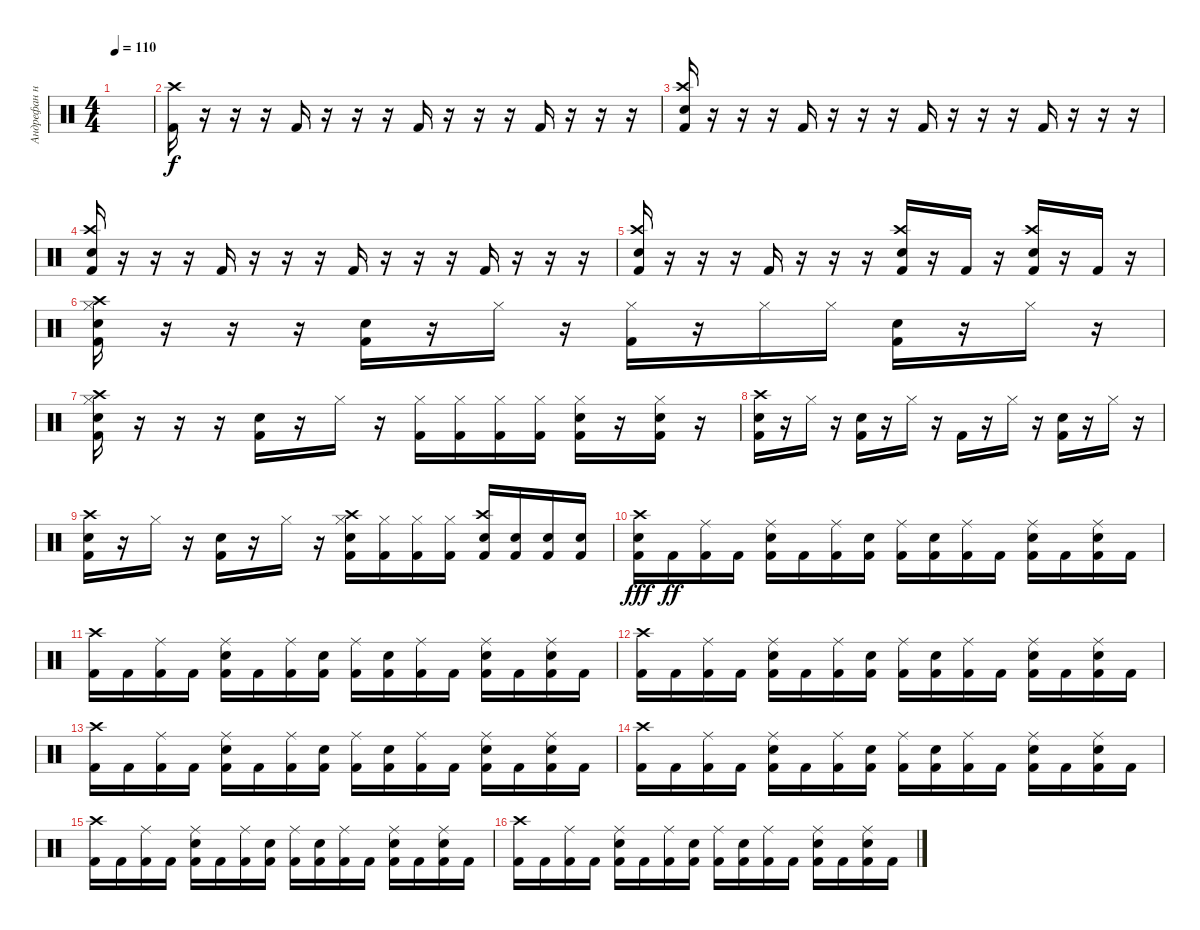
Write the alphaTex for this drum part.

\track ("Андрефан на драмах" "Андрефан н") {instrument percussion}
\staff {score}
\articulation defaults
\ts (4 4)
\tempo 110
\clef neutral
\ks c
|
("Kick (hit) 2" "Crash high (hit)").16{dy f} r.16 r.16 r.16 "Kick (hit) 2".16 r.16 r.16 r.16 "Kick (hit) 2".16 r.16 r.16 r.16 "Kick (hit) 2".16 r.16 r.16 r.16 |
("Kick (hit) 2" "Crash high (hit)" "Electric Snare (hit)").16 r.16 r.16 r.16 "Kick (hit) 2".16 r.16 r.16 r.16 "Kick (hit) 2".16 r.16 r.16 r.16 "Kick (hit) 2".16 r.16 r.16 r.16 |
("Kick (hit) 2" "Electric Snare (hit)" "Crash high (hit)").16 r.16 r.16 r.16 "Kick (hit) 2".16 r.16 r.16 r.16 "Kick (hit) 2".16 r.16 r.16 r.16 "Kick (hit) 2".16 r.16 r.16 r.16 |
("Kick (hit) 2" "Crash high (hit)" "Electric Snare (hit)").16 r.16 r.16 r.16 "Kick (hit) 2".16 r.16 r.16 r.16 ("Kick (hit) 2" "Crash high (hit)" "Electric Snare (hit)").16 r.16 "Kick (hit) 2".16 r.16 ("Kick (hit) 2" "Crash high (hit)" "Electric Snare (hit)").16 r.16 "Kick (hit) 2".16 r.16 |
("Kick (hit) 2" "Hi-Hat (closed)" "Crash high (hit)" "Electric Snare (hit)").16 r.16 r.16 r.16 ("Kick (hit) 2" "Electric Snare (hit)").16 r.16 "Hi-Hat (closed)".16 r.16 ("Kick (hit) 2" "Hi-Hat (closed)").16 r.16 "Hi-Hat (closed)".16 "Hi-Hat (closed)".16 ("Kick (hit) 2" "Electric Snare (hit)").16 r.16 "Hi-Hat (closed)".16 r.16 |
("Kick (hit) 2" "Hi-Hat (closed)" "Electric Snare (hit)" "Crash high (hit)").16 r.16 r.16 r.16 ("Kick (hit) 2" "Electric Snare (hit)").16 r.16 "Hi-Hat (closed)".16 r.16 ("Kick (hit) 2" "Hi-Hat (closed)").16 ("Kick (hit) 2" "Hi-Hat (closed)").16 ("Kick (hit) 2" "Hi-Hat (closed)").16 ("Kick (hit) 2" "Hi-Hat (closed)").16 ("Kick (hit) 2" "Electric Snare (hit)" "Hi-Hat (closed)").16 r.16 ("Kick (hit) 2" "Electric Snare (hit)" "Hi-Hat (closed)").16 r.16 |
("Kick (hit) 2" "Electric Snare (hit)" "Crash high (hit)").16 r.16 "Hi-Hat (closed)".16 r.16 ("Kick (hit) 2" "Electric Snare (hit)").16 r.16 "Hi-Hat (closed)".16 r.16 "Kick (hit) 2".16 r.16 "Hi-Hat (closed)".16 r.16 ("Kick (hit) 2" "Electric Snare (hit)").16 r.16 "Hi-Hat (closed)".16 r.16 |
("Kick (hit) 2" "Crash high (hit)" "Electric Snare (hit)").16 r.16 "Hi-Hat (closed)".16 r.16 ("Kick (hit) 2" "Electric Snare (hit)").16 r.16 "Hi-Hat (closed)".16 r.16 ("Kick (hit) 2" "Hi-Hat (closed)" "Crash high (hit)" "Electric Snare (hit)").16 ("Kick (hit) 2" "Hi-Hat (closed)").16 ("Kick (hit) 2" "Hi-Hat (closed)").16 ("Kick (hit) 2" "Hi-Hat (closed)").16 ("Kick (hit) 2" "Electric Snare (hit)" "Crash high (hit)").16 ("Kick (hit) 2" "Electric Snare (hit)").16 ("Kick (hit) 2" "Electric Snare (hit)").16 ("Kick (hit) 2" "Electric Snare (hit)").16 |
("Kick (hit) 2" "Crash high (hit)" "Electric Snare (hit)").16{dy fff} "Kick (hit) 2".16{dy ff} ("Kick (hit) 2" "Ride (middle)").16 "Kick (hit) 2".16 ("Kick (hit) 2" "Ride (middle)" "Electric Snare (hit)").16 "Kick (hit) 2".16 ("Kick (hit) 2" "Ride (middle)").16 ("Kick (hit) 2" "Electric Snare (hit)").16 ("Kick (hit) 2" "Ride (middle)").16 ("Kick (hit) 2" "Electric Snare (hit)").16 ("Kick (hit) 2" "Ride (middle)").16 "Kick (hit) 2".16 ("Kick (hit) 2" "Ride (middle)" "Electric Snare (hit)").16 "Kick (hit) 2".16 ("Kick (hit) 2" "Ride (middle)" "Electric Snare (hit)").16 "Kick (hit) 2".16 |
("Kick (hit) 2" "Crash high (hit)").16 "Kick (hit) 2".16 ("Kick (hit) 2" "Ride (middle)").16 "Kick (hit) 2".16 ("Kick (hit) 2" "Ride (middle)" "Electric Snare (hit)").16 "Kick (hit) 2".16 ("Kick (hit) 2" "Ride (middle)").16 ("Kick (hit) 2" "Electric Snare (hit)").16 ("Kick (hit) 2" "Ride (middle)").16 ("Kick (hit) 2" "Electric Snare (hit)").16 ("Kick (hit) 2" "Ride (middle)").16 "Kick (hit) 2".16 ("Kick (hit) 2" "Ride (middle)" "Electric Snare (hit)").16 "Kick (hit) 2".16 ("Kick (hit) 2" "Ride (middle)" "Electric Snare (hit)").16 "Kick (hit) 2".16 |
("Kick (hit) 2" "Crash high (hit)").16 "Kick (hit) 2".16 ("Kick (hit) 2" "Ride (middle)").16 "Kick (hit) 2".16 ("Kick (hit) 2" "Ride (middle)" "Electric Snare (hit)").16 "Kick (hit) 2".16 ("Kick (hit) 2" "Ride (middle)").16 ("Kick (hit) 2" "Electric Snare (hit)").16 ("Kick (hit) 2" "Ride (middle)").16 ("Kick (hit) 2" "Electric Snare (hit)").16 ("Kick (hit) 2" "Ride (middle)").16 "Kick (hit) 2".16 ("Kick (hit) 2" "Ride (middle)" "Electric Snare (hit)").16 "Kick (hit) 2".16 ("Kick (hit) 2" "Ride (middle)" "Electric Snare (hit)").16 "Kick (hit) 2".16 |
("Kick (hit) 2" "Crash high (hit)").16 "Kick (hit) 2".16 ("Kick (hit) 2" "Ride (middle)").16 "Kick (hit) 2".16 ("Kick (hit) 2" "Ride (middle)" "Electric Snare (hit)").16 "Kick (hit) 2".16 ("Kick (hit) 2" "Ride (middle)").16 ("Kick (hit) 2" "Electric Snare (hit)").16 ("Kick (hit) 2" "Ride (middle)").16 ("Kick (hit) 2" "Electric Snare (hit)").16 ("Kick (hit) 2" "Ride (middle)").16 "Kick (hit) 2".16 ("Kick (hit) 2" "Ride (middle)" "Electric Snare (hit)").16 "Kick (hit) 2".16 ("Kick (hit) 2" "Ride (middle)" "Electric Snare (hit)").16 "Kick (hit) 2".16 |
("Kick (hit) 2" "Crash high (hit)").16 "Kick (hit) 2".16 ("Kick (hit) 2" "Ride (middle)").16 "Kick (hit) 2".16 ("Kick (hit) 2" "Ride (middle)" "Electric Snare (hit)").16 "Kick (hit) 2".16 ("Kick (hit) 2" "Ride (middle)").16 ("Kick (hit) 2" "Electric Snare (hit)").16 ("Kick (hit) 2" "Ride (middle)").16 ("Kick (hit) 2" "Electric Snare (hit)").16 ("Kick (hit) 2" "Ride (middle)").16 "Kick (hit) 2".16 ("Kick (hit) 2" "Ride (middle)" "Electric Snare (hit)").16 "Kick (hit) 2".16 ("Kick (hit) 2" "Ride (middle)" "Electric Snare (hit)").16 "Kick (hit) 2".16 |
("Kick (hit) 2" "Crash high (hit)").16 "Kick (hit) 2".16 ("Kick (hit) 2" "Ride (middle)").16 "Kick (hit) 2".16 ("Kick (hit) 2" "Ride (middle)" "Electric Snare (hit)").16 "Kick (hit) 2".16 ("Kick (hit) 2" "Ride (middle)").16 ("Kick (hit) 2" "Electric Snare (hit)").16 ("Kick (hit) 2" "Ride (middle)").16 ("Kick (hit) 2" "Electric Snare (hit)").16 ("Kick (hit) 2" "Ride (middle)").16 "Kick (hit) 2".16 ("Kick (hit) 2" "Ride (middle)" "Electric Snare (hit)").16 "Kick (hit) 2".16 ("Kick (hit) 2" "Ride (middle)" "Electric Snare (hit)").16 "Kick (hit) 2".16 |
("Kick (hit) 2" "Crash high (hit)").16 "Kick (hit) 2".16 ("Kick (hit) 2" "Ride (middle)").16 "Kick (hit) 2".16 ("Kick (hit) 2" "Ride (middle)" "Electric Snare (hit)").16 "Kick (hit) 2".16 ("Kick (hit) 2" "Ride (middle)").16 ("Kick (hit) 2" "Electric Snare (hit)").16 ("Kick (hit) 2" "Ride (middle)").16 ("Kick (hit) 2" "Electric Snare (hit)").16 ("Kick (hit) 2" "Ride (middle)").16 "Kick (hit) 2".16 ("Kick (hit) 2" "Ride (middle)" "Electric Snare (hit)").16 "Kick (hit) 2".16 ("Kick (hit) 2" "Ride (middle)" "Electric Snare (hit)").16 "Kick (hit) 2".16
